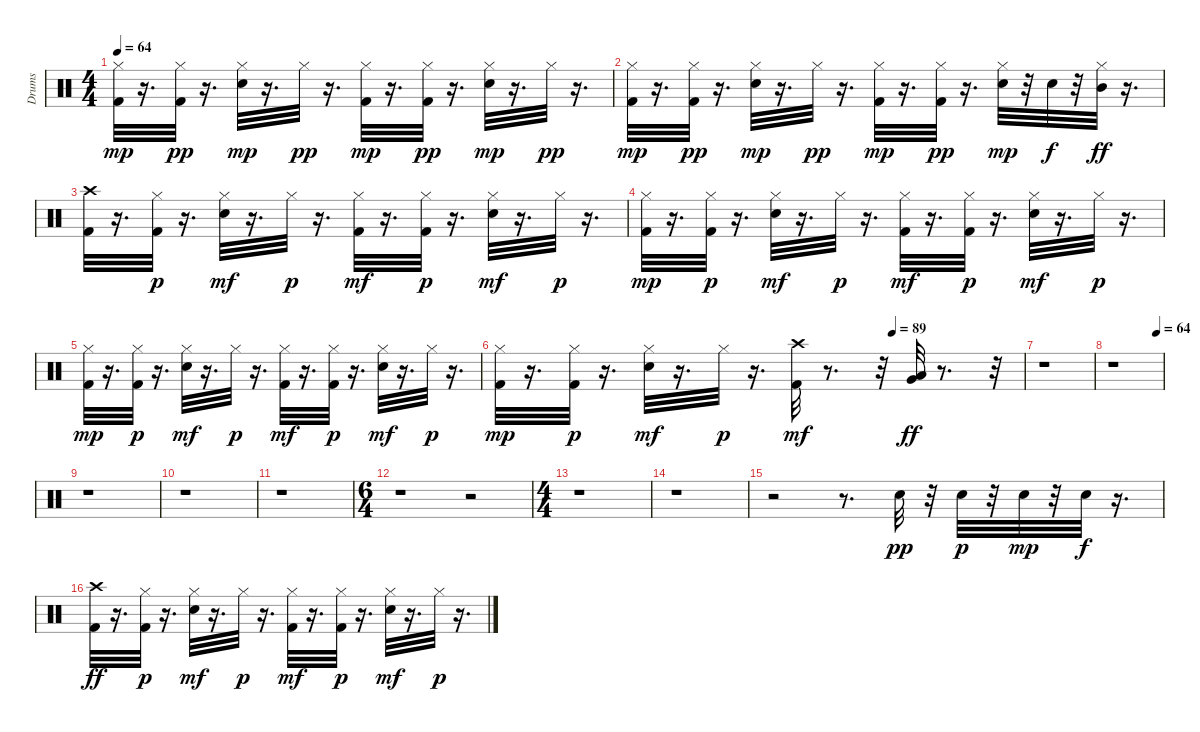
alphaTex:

\track ("Drums" "Drums") {instrument percussion}
\staff {score}
\articulation defaults
\ts (4 4)
\tempo 64
\clef neutral
\ks c
("Kick (hit) 2" "Hi-Hat (closed)").32{dy mp} r.16{d} ("Kick (hit) 2" "Hi-Hat (closed)").32{dy pp} r.16{d} ("Snare (hit) 2" "Hi-Hat (closed)").32{dy mp} r.16{d} "Hi-Hat (closed)".32{dy pp} r.16{d} ("Kick (hit) 2" "Hi-Hat (closed)").32{dy mp} r.16{d} ("Kick (hit) 2" "Hi-Hat (closed)").32{dy pp} r.16{d} ("Snare (hit) 2" "Hi-Hat (closed)").32{dy mp} r.16{d} "Hi-Hat (closed)".32{dy pp} r.16{d} |
("Kick (hit) 2" "Hi-Hat (closed)").32{dy mp} r.16{d} ("Kick (hit) 2" "Hi-Hat (closed)").32{dy pp} r.16{d} ("Snare (hit) 2" "Hi-Hat (closed)").32{dy mp} r.16{d} "Hi-Hat (closed)".32{dy pp} r.16{d} ("Kick (hit) 2" "Hi-Hat (closed)").32{dy mp} r.16{d} ("Kick (hit) 2" "Hi-Hat (closed)").32{dy pp} r.16{d} ("Snare (hit) 2" "Hi-Hat (closed)").32{dy mp} r.32 "Snare (hit) 2".32{dy f} r.32 ("Hi-Hat (closed)" "Mid Tom (hit)").32{dy ff} r.16{d} |
("Kick (hit) 2" "Crash high (hit)").32 r.16{d} ("Kick (hit) 2" "Hi-Hat (closed)").32{dy p} r.16{d} ("Snare (hit) 2" "Hi-Hat (closed)").32{dy mf} r.16{d} "Hi-Hat (closed)".32{dy p} r.16{d} ("Kick (hit) 2" "Hi-Hat (closed)").32{dy mf} r.16{d} ("Kick (hit) 2" "Hi-Hat (closed)").32{dy p} r.16{d} ("Snare (hit) 2" "Hi-Hat (closed)").32{dy mf} r.16{d} "Hi-Hat (closed)".32{dy p} r.16{d} |
("Kick (hit) 2" "Hi-Hat (closed)").32{dy mp} r.16{d} ("Kick (hit) 2" "Hi-Hat (closed)").32{dy p} r.16{d} ("Snare (hit) 2" "Hi-Hat (closed)").32{dy mf} r.16{d} "Hi-Hat (closed)".32{dy p} r.16{d} ("Kick (hit) 2" "Hi-Hat (closed)").32{dy mf} r.16{d} ("Kick (hit) 2" "Hi-Hat (closed)").32{dy p} r.16{d} ("Snare (hit) 2" "Hi-Hat (closed)").32{dy mf} r.16{d} "Hi-Hat (closed)".32{dy p} r.16{d} |
("Kick (hit) 2" "Hi-Hat (closed)").32{dy mp} r.16{d} ("Kick (hit) 2" "Hi-Hat (closed)").32{dy p} r.16{d} ("Snare (hit) 2" "Hi-Hat (closed)").32{dy mf} r.16{d} "Hi-Hat (closed)".32{dy p} r.16{d} ("Kick (hit) 2" "Hi-Hat (closed)").32{dy mf} r.16{d} ("Kick (hit) 2" "Hi-Hat (closed)").32{dy p} r.16{d} ("Snare (hit) 2" "Hi-Hat (closed)").32{dy mf} r.16{d} "Hi-Hat (closed)".32{dy p} r.16{d} |
\tempo (89 0.75)
("Kick (hit) 2" "Hi-Hat (closed)").32{dy mp} r.16{d} ("Kick (hit) 2" "Hi-Hat (closed)").32{dy p} r.16{d} ("Snare (hit) 2" "Hi-Hat (closed)").32{dy mf} r.16{d} "Hi-Hat (closed)".32{dy p} r.16{d} ("Kick (hit) 2" "Crash high (hit)").32{dy mf} r.8{d} r.32 ("Very Low Tom (hit)" "Low Tom (hit)").32{dy ff} r.8{d} r.32 |
r.1 |
\tempo (64 0.8833333333333333)
r.1 |
r.1 |
r.1 |
r.1 |
\ts (6 4)
r.1 r.2 |
\ts (4 4)
r.1 |
r.1 |
r.2 r.8{d} "Snare (hit) 2".32{dy pp} r.32 "Snare (hit) 2".32{dy p} r.32 "Snare (hit) 2".32{dy mp} r.32 "Snare (hit) 2".32{dy f} r.16{d} |
("Kick (hit) 2" "Crash high (hit)").32{dy ff} r.16{d} ("Kick (hit) 2" "Hi-Hat (closed)").32{dy p} r.16{d} ("Snare (hit) 2" "Hi-Hat (closed)").32{dy mf} r.16{d} "Hi-Hat (closed)".32{dy p} r.16{d} ("Kick (hit) 2" "Hi-Hat (closed)").32{dy mf} r.16{d} ("Kick (hit) 2" "Hi-Hat (closed)").32{dy p} r.16{d} ("Snare (hit) 2" "Hi-Hat (closed)").32{dy mf} r.16{d} "Hi-Hat (closed)".32{dy p} r.16{d}
